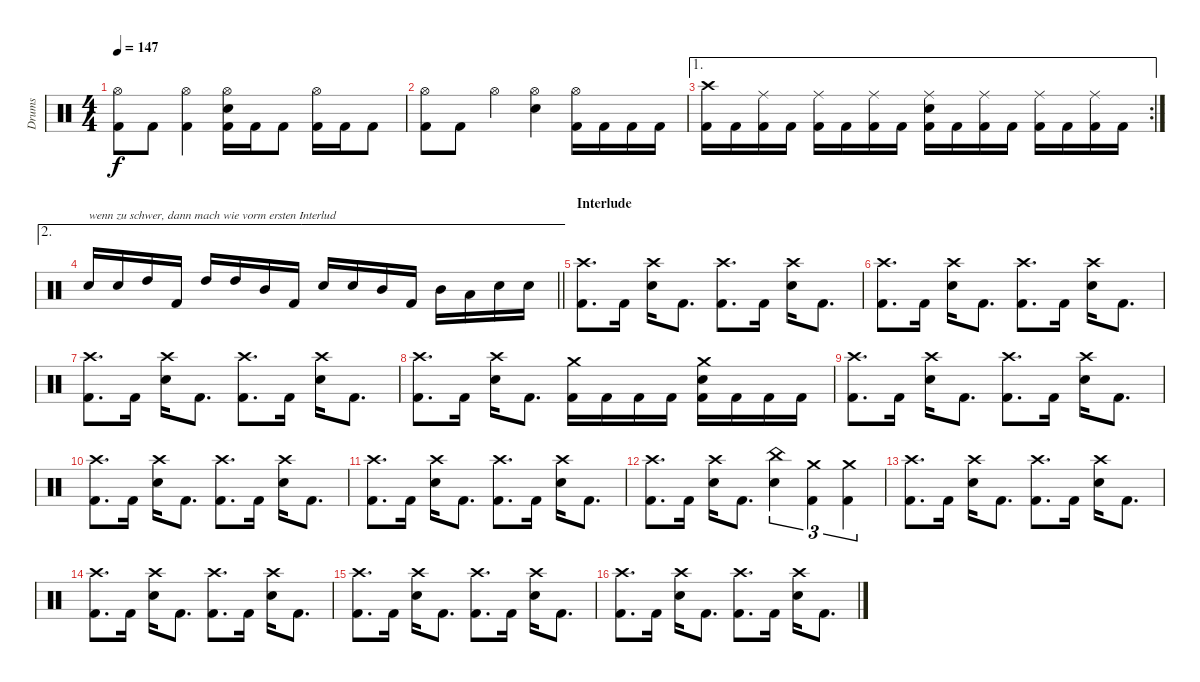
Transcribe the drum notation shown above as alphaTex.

\track ("Drums" "Drums") {instrument percussion}
\staff {score}
\articulation defaults
\ts (4 4)
\tempo 147
\clef neutral
\ks c
("Hi-Hat (open)" "Kick (hit) 2").8{dy f} "Kick (hit) 2".8 ("Hi-Hat (open)" "Kick (hit) 2").4 ("Hi-Hat (open)" "Electric Snare (hit)" "Kick (hit) 2").16 "Kick (hit) 2".16 "Kick (hit) 2".8 ("Hi-Hat (open)" "Kick (hit) 2").16 "Kick (hit) 2".16 "Kick (hit) 2".8 |
("Hi-Hat (open)" "Kick (hit) 2").8 "Kick (hit) 2".8 "Hi-Hat (open)".4 ("Hi-Hat (open)" "Electric Snare (hit)").4 ("Hi-Hat (open)" "Kick (hit) 2").16 "Kick (hit) 2".16 "Kick (hit) 2".16 "Kick (hit) 2".16 |
\ae 1
\rc 2
("Crash high (hit)" "Kick (hit) 2").16 "Kick (hit) 2".16 ("Ride (middle)" "Kick (hit) 2").16 "Kick (hit) 2".16 ("Ride (middle)" "Kick (hit) 2").16 "Kick (hit) 2".16 ("Ride (middle)" "Kick (hit) 2").16 "Kick (hit) 2".16 ("Ride (middle)" "Electric Snare (hit)" "Kick (hit) 2").16 "Kick (hit) 2".16 ("Ride (middle)" "Kick (hit) 2").16 "Kick (hit) 2".16 ("Ride (middle)" "Kick (hit) 2").16 "Kick (hit) 2".16 ("Ride (middle)" "Kick (hit) 2").16 "Kick (hit) 2".16 |
\ae 2
\barLineRight lightlight "Electric Snare (hit)".16{txt "wenn zu schwer, dann mach wie vorm ersten Interlud"} "Electric Snare (hit)".16 "High Tom (hit)".16 "Kick (hit) 2".16 "High Tom (hit)".16 "High Tom (hit)".16 "Mid Tom (hit)".16 "Kick (hit) 2".16 "Electric Snare (hit)".16 "Electric Snare (hit)".16 "Mid Tom (hit)".16 "Kick (hit) 2".16 "Mid Tom (hit)".16 "Low Tom (hit)".16 "Electric Snare (hit)".16 "Electric Snare (hit)".16
|
\section ("" "Interlude")
("Crash high (hit)" "Kick (hit) 2").8{d} "Kick (hit) 2".16 ("Crash high (hit)" "Electric Snare (hit)").16 "Kick (hit) 2".8{d} ("Crash high (hit)" "Kick (hit) 2").8{d} "Kick (hit) 2".16 ("Crash high (hit)" "Electric Snare (hit)").16 "Kick (hit) 2".8{d} |
("Crash high (hit)" "Kick (hit) 2").8{d} "Kick (hit) 2".16 ("Crash high (hit)" "Electric Snare (hit)").16 "Kick (hit) 2".8{d} ("Crash high (hit)" "Kick (hit) 2").8{d} "Kick (hit) 2".16 ("Crash high (hit)" "Electric Snare (hit)").16 "Kick (hit) 2".8{d} |
("Crash high (hit)" "Kick (hit) 2").8{d} "Kick (hit) 2".16 ("Crash high (hit)" "Electric Snare (hit)").16 "Kick (hit) 2".8{d} ("Crash high (hit)" "Kick (hit) 2").8{d} "Kick (hit) 2".16 ("Crash high (hit)" "Electric Snare (hit)").16 "Kick (hit) 2".8{d} |
("Crash high (hit)" "Kick (hit) 2").8{d} "Kick (hit) 2".16 ("Crash high (hit)" "Electric Snare (hit)").16 "Kick (hit) 2".8{d} ("Crash medium (hit)" "Kick (hit) 2").16 "Kick (hit) 2".16 "Kick (hit) 2".16 "Kick (hit) 2".16 ("Crash medium (hit)" "Electric Snare (hit)" "Kick (hit) 2").16 "Kick (hit) 2".16 "Kick (hit) 2".16 "Kick (hit) 2".16 |
("Crash high (hit)" "Kick (hit) 2").8{d} "Kick (hit) 2".16 ("Crash high (hit)" "Electric Snare (hit)").16 "Kick (hit) 2".8{d} ("Crash high (hit)" "Kick (hit) 2").8{d} "Kick (hit) 2".16 ("Crash high (hit)" "Electric Snare (hit)").16 "Kick (hit) 2".8{d} |
("Crash high (hit)" "Kick (hit) 2").8{d} "Kick (hit) 2".16 ("Crash high (hit)" "Electric Snare (hit)").16 "Kick (hit) 2".8{d} ("Crash high (hit)" "Kick (hit) 2").8{d} "Kick (hit) 2".16 ("Crash high (hit)" "Electric Snare (hit)").16 "Kick (hit) 2".8{d} |
("Crash high (hit)" "Kick (hit) 2").8{d} "Kick (hit) 2".16 ("Crash high (hit)" "Electric Snare (hit)").16 "Kick (hit) 2".8{d} ("Crash high (hit)" "Kick (hit) 2").8{d} "Kick (hit) 2".16 ("Crash high (hit)" "Electric Snare (hit)").16 "Kick (hit) 2".8{d} |
("Crash high (hit)" "Kick (hit) 2").8{d} "Kick (hit) 2".16 ("Crash high (hit)" "Electric Snare (hit)").16 "Kick (hit) 2".8{d} ("China (hit)" "Electric Snare (hit)").4{tu (3 2)} ("Crash medium (hit)" "Kick (hit) 2").4{tu (3 2)} ("Crash medium (hit)" "Kick (hit) 2").4{tu (3 2)} |
("Crash high (hit)" "Kick (hit) 2").8{d} "Kick (hit) 2".16 ("Crash high (hit)" "Electric Snare (hit)").16 "Kick (hit) 2".8{d} ("Crash high (hit)" "Kick (hit) 2").8{d} "Kick (hit) 2".16 ("Crash high (hit)" "Electric Snare (hit)").16 "Kick (hit) 2".8{d} |
("Crash high (hit)" "Kick (hit) 2").8{d} "Kick (hit) 2".16 ("Crash high (hit)" "Electric Snare (hit)").16 "Kick (hit) 2".8{d} ("Crash high (hit)" "Kick (hit) 2").8{d} "Kick (hit) 2".16 ("Crash high (hit)" "Electric Snare (hit)").16 "Kick (hit) 2".8{d} |
("Crash high (hit)" "Kick (hit) 2").8{d} "Kick (hit) 2".16 ("Crash high (hit)" "Electric Snare (hit)").16 "Kick (hit) 2".8{d} ("Crash high (hit)" "Kick (hit) 2").8{d} "Kick (hit) 2".16 ("Crash high (hit)" "Electric Snare (hit)").16 "Kick (hit) 2".8{d} |
("Crash high (hit)" "Kick (hit) 2").8{d} "Kick (hit) 2".16 ("Crash high (hit)" "Electric Snare (hit)").16 "Kick (hit) 2".8{d} ("Crash high (hit)" "Kick (hit) 2").8{d} "Kick (hit) 2".16 ("Crash high (hit)" "Electric Snare (hit)").16 "Kick (hit) 2".8{d}
